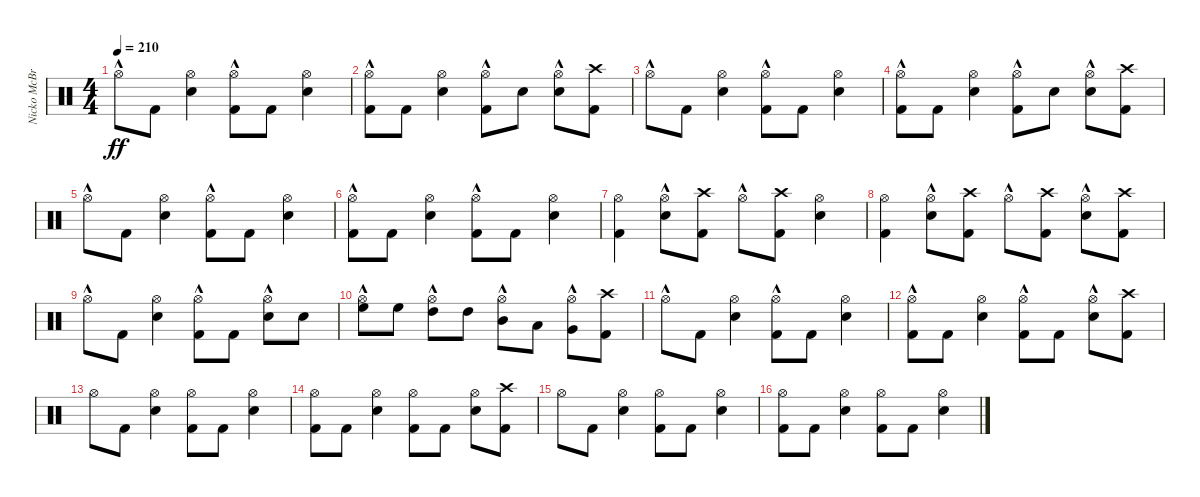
\track ("Nicko McBrain" "Nicko McBr") {instrument percussion}
\staff {score}
\articulation defaults
\ts (4 4)
\tempo 210
\clef neutral
\ks c "Hi-Hat (open)"{hac}.8{dy ff} "Kick (hit) 2".8
("Snare (hit) 2" "Hi-Hat (open)").4 ("Kick (hit) 2" "Hi-Hat (open)"{hac}).8 "Kick (hit) 2".8 ("Snare (hit) 2" "Hi-Hat (open)").4 |
("Kick (hit) 2" "Hi-Hat (open)"{hac}).8 "Kick (hit) 2".8 ("Snare (hit) 2" "Hi-Hat (open)").4 ("Kick (hit) 2" "Hi-Hat (open)"{hac}).8 "Snare (hit) 2".8 ("Snare (hit) 2" "Hi-Hat (open)"{hac}).8 ("Kick (hit) 2" "Crash high (hit)").8 |
"Hi-Hat (open)"{hac}.8 "Kick (hit) 2".8 ("Snare (hit) 2" "Hi-Hat (open)").4 ("Kick (hit) 2" "Hi-Hat (open)"{hac}).8 "Kick (hit) 2".8 ("Snare (hit) 2" "Hi-Hat (open)").4 |
("Kick (hit) 2" "Hi-Hat (open)"{hac}).8 "Kick (hit) 2".8 ("Snare (hit) 2" "Hi-Hat (open)").4 ("Kick (hit) 2" "Hi-Hat (open)"{hac}).8 "Snare (hit) 2".8 ("Snare (hit) 2" "Hi-Hat (open)"{hac}).8 ("Kick (hit) 2" "Crash high (hit)").8 |
"Hi-Hat (open)"{hac}.8 "Kick (hit) 2".8 ("Snare (hit) 2" "Hi-Hat (open)").4 ("Kick (hit) 2" "Hi-Hat (open)"{hac}).8 "Kick (hit) 2".8 ("Snare (hit) 2" "Hi-Hat (open)").4 |
("Kick (hit) 2" "Hi-Hat (open)"{hac}).8 "Kick (hit) 2".8 ("Snare (hit) 2" "Hi-Hat (open)").4 ("Kick (hit) 2" "Hi-Hat (open)"{hac}).8 "Kick (hit) 2".8 ("Snare (hit) 2" "Hi-Hat (open)").4 |
("Kick (hit) 2" "Hi-Hat (open)").4 ("Snare (hit) 2" "Hi-Hat (open)"{hac}).8 ("Kick (hit) 2" "Crash high (hit)").8 "Hi-Hat (open)"{hac}.8 ("Kick (hit) 2" "Crash high (hit)").8 ("Snare (hit) 2" "Hi-Hat (open)").4 |
("Kick (hit) 2" "Hi-Hat (open)").4 ("Snare (hit) 2" "Hi-Hat (open)"{hac}).8 ("Kick (hit) 2" "Crash high (hit)").8 "Hi-Hat (open)"{hac}.8 ("Kick (hit) 2" "Crash high (hit)").8 ("Snare (hit) 2" "Hi-Hat (open)"{hac}).8 ("Kick (hit) 2" "Crash high (hit)").8 |
"Hi-Hat (open)"{hac}.8 "Kick (hit) 2".8 ("Snare (hit) 2" "Hi-Hat (open)").4 ("Kick (hit) 2" "Hi-Hat (open)"{hac}).8 "Kick (hit) 2".8 ("Snare (hit) 2" "Hi-Hat (open)"{hac}).8 "Snare (hit) 2".8 |
("Hi-Hat (open)"{hac} "High Floor Tom (hit)").8 "High Floor Tom (hit)".8 ("Hi-Hat (open)"{hac} "High Tom (hit)").8 "High Tom (hit)".8 ("Hi-Hat (open)"{hac} "Mid Tom (hit)").8 "Low Tom (hit)".8 ("Very Low Tom (hit)" "Hi-Hat (open)"{hac}).8 ("Kick (hit) 2" "Crash high (hit)").8 |
"Hi-Hat (open)"{hac}.8 "Kick (hit) 2".8 ("Snare (hit) 2" "Hi-Hat (open)").4 ("Kick (hit) 2" "Hi-Hat (open)"{hac}).8 "Kick (hit) 2".8 ("Snare (hit) 2" "Hi-Hat (open)").4 |
("Kick (hit) 2" "Hi-Hat (open)"{hac}).8 "Kick (hit) 2".8 ("Snare (hit) 2" "Hi-Hat (open)").4 ("Kick (hit) 2" "Hi-Hat (open)"{hac}).8 "Kick (hit) 2".8 ("Snare (hit) 2" "Hi-Hat (open)"{hac}).8 ("Kick (hit) 2" "Crash high (hit)").8 |
"Hi-Hat (open)".8 "Kick (hit) 2".8 ("Snare (hit) 2" "Hi-Hat (open)").4 ("Kick (hit) 2" "Hi-Hat (open)").8 "Kick (hit) 2".8 ("Snare (hit) 2" "Hi-Hat (open)").4 |
("Kick (hit) 2" "Hi-Hat (open)").8 "Kick (hit) 2".8 ("Snare (hit) 2" "Hi-Hat (open)").4 ("Kick (hit) 2" "Hi-Hat (open)").8 "Kick (hit) 2".8 ("Snare (hit) 2" "Hi-Hat (open)").8 ("Kick (hit) 2" "Crash high (hit)").8 |
"Hi-Hat (open)".8 "Kick (hit) 2".8 ("Snare (hit) 2" "Hi-Hat (open)").4 ("Kick (hit) 2" "Hi-Hat (open)").8 "Kick (hit) 2".8 ("Snare (hit) 2" "Hi-Hat (open)").4 |
("Kick (hit) 2" "Hi-Hat (open)").8 "Kick (hit) 2".8 ("Snare (hit) 2" "Hi-Hat (open)").4 ("Kick (hit) 2" "Hi-Hat (open)").8 "Kick (hit) 2".8 ("Snare (hit) 2" "Hi-Hat (open)").4
